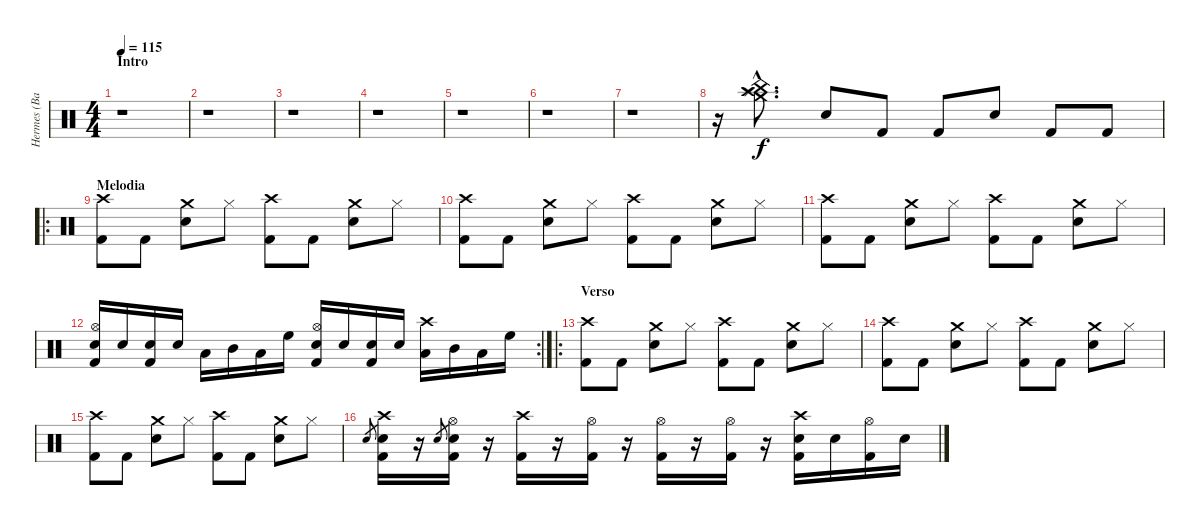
\track ("Hermes (Bateria)" "Hermes (Ba") {instrument percussion}
\staff {score}
\articulation defaults
\ts (4 4)
\section ("" "Intro")
\tempo 115
\clef neutral
\ks c
r.1{dy f} |
r.1 |
r.1 |
r.1 |
r.1 |
r.1 |
r.1 |
r.16 ("Splash (hit)"{hac} "Crash medium (hit)"{hac} "China (hit)"{hac} "Crash high (hit)"{hac}).8{d} "Snare (hit) 2".8 "Kick (hit) 2".8 "Kick (hit) 2".8 "Snare (hit) 2".8 "Kick (hit) 2".8 "Kick (hit) 2".8 |
\ro
\section ("" "Melodia")
("Crash high (hit)" "Kick (hit) 2").8 "Kick (hit) 2".8 ("Crash medium (hit)" "Snare (hit) 2").8 "Hi-Hat (closed)".8 ("Crash high (hit)" "Kick (hit) 2").8 "Kick (hit) 2".8 ("Crash medium (hit)" "Snare (hit) 2").8 "Hi-Hat (closed)".8 |
("Crash high (hit)" "Kick (hit) 2").8 "Kick (hit) 2".8 ("Crash medium (hit)" "Snare (hit) 2").8 "Hi-Hat (closed)".8 ("Crash high (hit)" "Kick (hit) 2").8 "Kick (hit) 2".8 ("Crash medium (hit)" "Snare (hit) 2").8 "Hi-Hat (closed)".8 |
("Crash high (hit)" "Kick (hit) 2").8 "Kick (hit) 2".8 ("Crash medium (hit)" "Snare (hit) 2").8 "Hi-Hat (closed)".8 ("Crash high (hit)" "Kick (hit) 2").8 "Kick (hit) 2".8 ("Crash medium (hit)" "Snare (hit) 2").8 "Hi-Hat (closed)".8 |
\rc 2
("Hi-Hat (open)" "Electric Snare (hit)" "Kick (hit) 2").16 "Electric Snare (hit)".16 ("Electric Snare (hit)" "Kick (hit) 2").16 "Electric Snare (hit)".16 "Low Tom (hit)".16 "Mid Tom (hit)".16 "Low Tom (hit)".16 "High Floor Tom (hit)".16 ("Hi-Hat (open)" "Electric Snare (hit)" "Kick (hit) 2").16 "Electric Snare (hit)".16 ("Electric Snare (hit)" "Kick (hit) 2").16 "Electric Snare (hit)".16 ("Crash high (hit)" "Low Tom (hit)").16 "Mid Tom (hit)".16 "Low Tom (hit)".16 "High Floor Tom (hit)".16 |
\ro
\section ("" "Verso")
("Crash high (hit)" "Kick (hit) 2").8 "Kick (hit) 2".8 ("Crash medium (hit)" "Snare (hit) 2").8 "Hi-Hat (closed)".8 ("Crash high (hit)" "Kick (hit) 2").8 "Kick (hit) 2".8 ("Crash medium (hit)" "Snare (hit) 2").8 "Hi-Hat (closed)".8 |
("Crash high (hit)" "Kick (hit) 2").8 "Kick (hit) 2".8 ("Crash medium (hit)" "Snare (hit) 2").8 "Hi-Hat (closed)".8 ("Crash high (hit)" "Kick (hit) 2").8 "Kick (hit) 2".8 ("Crash medium (hit)" "Snare (hit) 2").8 "Hi-Hat (closed)".8 |
("Crash high (hit)" "Kick (hit) 2").8 "Kick (hit) 2".8 ("Crash medium (hit)" "Snare (hit) 2").8 "Hi-Hat (closed)".8 ("Crash high (hit)" "Kick (hit) 2").8 "Kick (hit) 2".8 ("Crash medium (hit)" "Snare (hit) 2").8 "Hi-Hat (closed)".8 |
"Snare (hit) 2".8{gr} ("Crash high (hit)" "Snare (hit) 2" "Kick (hit) 2").16 r.16 "Snare (hit) 2".8{gr} ("Hi-Hat (open)" "Snare (hit) 2" "Kick (hit) 2").16 r.16 ("Crash high (hit)" "Kick (hit) 2").16 r.16 ("Hi-Hat (open)" "Kick (hit) 2").16 r.16 ("Hi-Hat (open)" "Kick (hit) 2").16 r.16 ("Hi-Hat (open)" "Kick (hit) 2").16 r.16 ("Crash high (hit)" "Snare (hit) 2" "Kick (hit) 2").16 "Snare (hit) 2".16 ("Hi-Hat (open)" "Kick (hit) 2").16 "Snare (hit) 2".16
